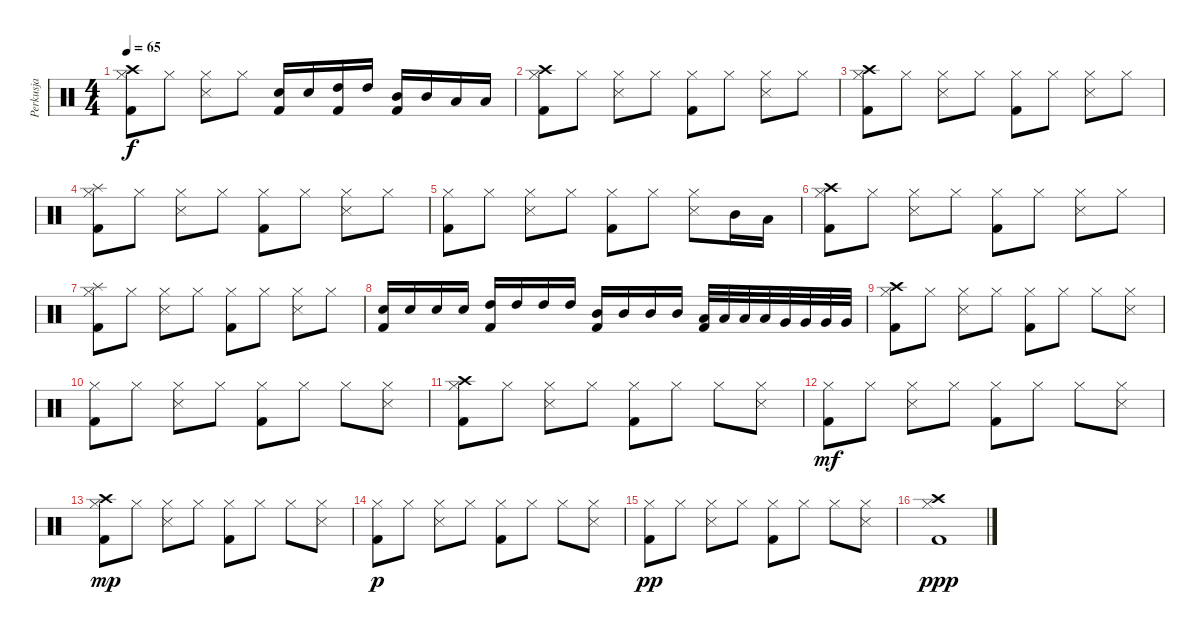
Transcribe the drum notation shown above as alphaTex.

\track ("Perkusja" "Perkusja") {instrument percussion}
\staff {score}
\articulation defaults
\ts (4 4)
\tempo 65
\clef neutral
\ks c
("Kick (hit) 2" "Hi-Hat (closed)" "Crash high (hit)").8{dy f} "Hi-Hat (closed)".8 ("Snare (side stick) 3" "Hi-Hat (closed)").8 "Hi-Hat (closed)".8 ("Kick (hit) 2" "Snare (hit) 2").16 "Snare (hit) 2".16 ("Kick (hit) 2" "High Tom (hit)").16 "High Tom (hit)".16 ("Kick (hit) 2" "Mid Tom (hit)").16 "Mid Tom (hit)".16 "Low Tom (hit)".16 "Low Tom (hit)".16 |
("Kick (hit) 2" "Hi-Hat (closed)" "Crash high (hit)").8 "Hi-Hat (closed)".8 ("Snare (side stick) 3" "Hi-Hat (closed)").8 "Hi-Hat (closed)".8 ("Kick (hit) 2" "Hi-Hat (closed)").8 "Hi-Hat (closed)".8 ("Snare (side stick) 3" "Hi-Hat (closed)").8 "Hi-Hat (closed)".8 |
("Kick (hit) 2" "Hi-Hat (closed)" "Crash high (hit)").8 "Hi-Hat (closed)".8 ("Snare (side stick) 3" "Hi-Hat (closed)").8 "Hi-Hat (closed)".8 ("Kick (hit) 2" "Hi-Hat (closed)").8 "Hi-Hat (closed)".8 ("Snare (side stick) 3" "Hi-Hat (closed)").8 "Hi-Hat (closed)".8 |
("Kick (hit) 2" "Hi-Hat (closed)" "Splash (hit)").8 "Hi-Hat (closed)".8 ("Snare (side stick) 3" "Hi-Hat (closed)").8 "Hi-Hat (closed)".8 ("Kick (hit) 2" "Hi-Hat (closed)").8 "Hi-Hat (closed)".8 ("Snare (side stick) 3" "Hi-Hat (closed)").8 "Hi-Hat (closed)".8 |
("Kick (hit) 2" "Hi-Hat (closed)").8 "Hi-Hat (closed)".8 ("Snare (side stick) 3" "Hi-Hat (closed)").8 "Hi-Hat (closed)".8 ("Kick (hit) 2" "Hi-Hat (closed)").8 "Hi-Hat (closed)".8 ("Snare (side stick) 3" "Hi-Hat (closed)").8 "Mid Tom (hit)".16 "Low Tom (hit)".16 |
("Kick (hit) 2" "Hi-Hat (closed)" "Crash high (hit)").8 "Hi-Hat (closed)".8 ("Snare (side stick) 3" "Hi-Hat (closed)").8 "Hi-Hat (closed)".8 ("Kick (hit) 2" "Hi-Hat (closed)").8 "Hi-Hat (closed)".8 ("Snare (side stick) 3" "Hi-Hat (closed)").8 "Hi-Hat (closed)".8 |
("Kick (hit) 2" "Hi-Hat (closed)" "Splash (hit)").8 "Hi-Hat (closed)".8 ("Snare (side stick) 3" "Hi-Hat (closed)").8 "Hi-Hat (closed)".8 ("Kick (hit) 2" "Hi-Hat (closed)").8 "Hi-Hat (closed)".8 ("Snare (side stick) 3" "Hi-Hat (closed)").8 "Hi-Hat (closed)".8 |
("Kick (hit) 2" "Snare (hit) 2").16 "Snare (hit) 2".16 "Snare (hit) 2".16 "Snare (hit) 2".16 ("Kick (hit) 2" "High Tom (hit)").16 "High Tom (hit)".16 "High Tom (hit)".16 "High Tom (hit)".16 ("Kick (hit) 2" "Mid Tom (hit)").16 "Mid Tom (hit)".16 "Mid Tom (hit)".16 "Mid Tom (hit)".16 ("Kick (hit) 2" "Low Tom (hit)").32 "Low Tom (hit)".32 "Low Tom (hit)".32 "Low Tom (hit)".32 "Very Low Tom (hit)".32 "Very Low Tom (hit)".32 "Very Low Tom (hit)".32 "Very Low Tom (hit)".32 |
("Kick (hit) 2" "Hi-Hat (closed)" "Crash high (hit)").8 "Hi-Hat (closed)".8 ("Snare (side stick) 3" "Hi-Hat (closed)").8 "Hi-Hat (closed)".8 ("Kick (hit) 2" "Hi-Hat (closed)").8 "Hi-Hat (closed)".8 "Hi-Hat (closed)".8 ("Snare (side stick) 3" "Hi-Hat (closed)").8 |
("Kick (hit) 2" "Hi-Hat (closed)").8 "Hi-Hat (closed)".8 ("Snare (side stick) 3" "Hi-Hat (closed)").8 "Hi-Hat (closed)".8 ("Kick (hit) 2" "Hi-Hat (closed)").8 "Hi-Hat (closed)".8 "Hi-Hat (closed)".8 ("Snare (side stick) 3" "Hi-Hat (closed)").8 |
("Kick (hit) 2" "Hi-Hat (closed)" "Crash high (hit)").8 "Hi-Hat (closed)".8 ("Snare (side stick) 3" "Hi-Hat (closed)").8 "Hi-Hat (closed)".8 ("Kick (hit) 2" "Hi-Hat (closed)").8 "Hi-Hat (closed)".8 "Hi-Hat (closed)".8 ("Snare (side stick) 3" "Hi-Hat (closed)").8 |
("Kick (hit) 2" "Hi-Hat (closed)").8{dy mf} "Hi-Hat (closed)".8 ("Snare (side stick) 3" "Hi-Hat (closed)").8 "Hi-Hat (closed)".8 ("Kick (hit) 2" "Hi-Hat (closed)").8 "Hi-Hat (closed)".8 "Hi-Hat (closed)".8 ("Snare (side stick) 3" "Hi-Hat (closed)").8 |
("Kick (hit) 2" "Hi-Hat (closed)" "Crash high (hit)").8{dy mp} "Hi-Hat (closed)".8 ("Snare (side stick) 3" "Hi-Hat (closed)").8 "Hi-Hat (closed)".8 ("Kick (hit) 2" "Hi-Hat (closed)").8 "Hi-Hat (closed)".8 "Hi-Hat (closed)".8 ("Snare (side stick) 3" "Hi-Hat (closed)").8 |
("Kick (hit) 2" "Hi-Hat (closed)").8{dy p} "Hi-Hat (closed)".8 ("Snare (side stick) 3" "Hi-Hat (closed)").8 "Hi-Hat (closed)".8 ("Kick (hit) 2" "Hi-Hat (closed)").8 "Hi-Hat (closed)".8 "Hi-Hat (closed)".8 ("Snare (side stick) 3" "Hi-Hat (closed)").8 |
("Kick (hit) 2" "Hi-Hat (closed)").8{dy pp} "Hi-Hat (closed)".8 ("Snare (side stick) 3" "Hi-Hat (closed)").8 "Hi-Hat (closed)".8 ("Kick (hit) 2" "Hi-Hat (closed)").8 "Hi-Hat (closed)".8 "Hi-Hat (closed)".8 ("Snare (side stick) 3" "Hi-Hat (closed)").8 |
("Kick (hit) 2" "Hi-Hat (closed)" "Crash high (hit)").1{dy ppp}
